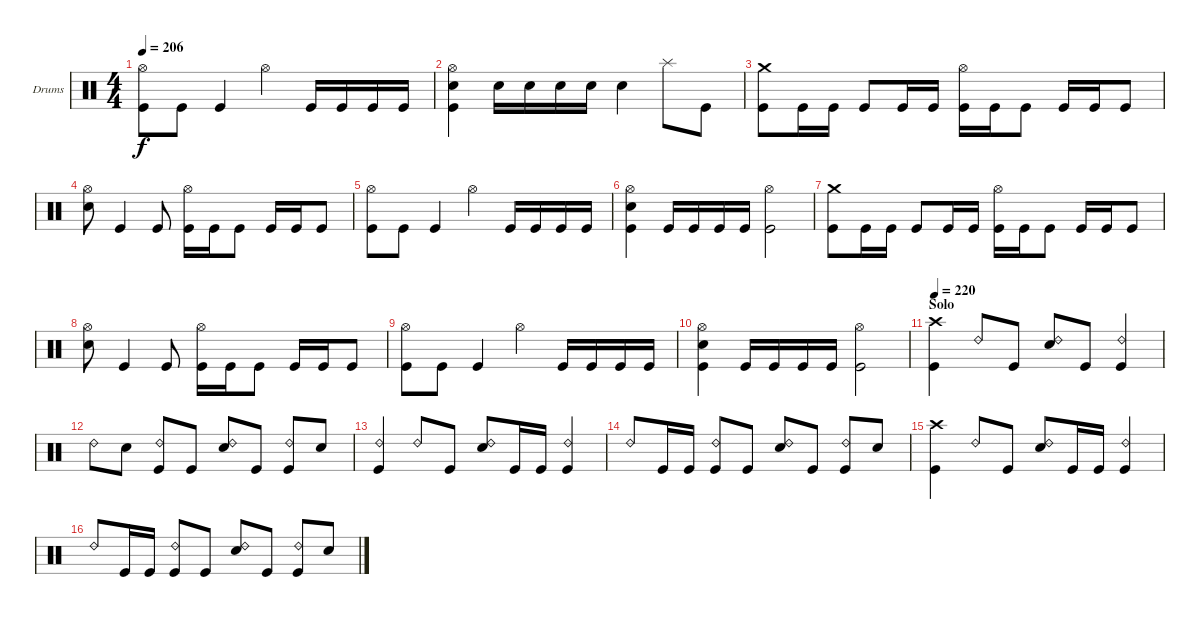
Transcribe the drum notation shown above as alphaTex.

\bracketExtendMode groupsimilarinstruments
\firstSystemTrackNameOrientation horizontal
\otherSystemsTrackNameOrientation horizontal
\track ("Drumkit" "Drums") {instrument percussion}
\staff {score}
\articulation defaults
\ts (4 4)
\tempo 206
\clef neutral
\scale
0.5
\ks c
("Hi-Hat (open)" "Kick (hit)").8{dy f} "Kick (hit)".8 "Kick (hit)".4 "Hi-Hat (open)".4 "Kick (hit)".16 "Kick (hit)".16 "Kick (hit)".16 "Kick (hit)".16 |
\scale
0.5 ("Hi-Hat (open)" "Snare (hit) 2" "Kick (hit)").4 "Snare (hit) 2".16 "Snare (hit) 2".16 "Snare (hit) 2".16 "Snare (hit) 2".16 "Snare (hit) 2".4 "Splash (hit)".8 "Kick (hit)".8 |
\scale
0.535354 ("Kick (hit)" "Crash medium (hit)").8 "Kick (hit)".16 "Kick (hit)".16 "Kick (hit)".8 "Kick (hit)".16 "Kick (hit)".16 ("Kick (hit)" "Hi-Hat (open)").16 "Kick (hit)".16 "Kick (hit)".8 "Kick (hit)".16 "Kick (hit)".16 "Kick (hit)".8 |
\scale
0.464646 ("Hi-Hat (open)" "Snare (hit) 2").8 "Kick (hit)".4 "Kick (hit)".8 ("Hi-Hat (open)" "Kick (hit)").16 "Kick (hit)".16 "Kick (hit)".8 "Kick (hit)".16 "Kick (hit)".16 "Kick (hit)".8 |
\scale
0.542056 ("Hi-Hat (open)" "Kick (hit)").8 "Kick (hit)".8 "Kick (hit)".4 "Hi-Hat (open)".4 "Kick (hit)".16 "Kick (hit)".16 "Kick (hit)".16 "Kick (hit)".16 |
\scale
0.457944 ("Hi-Hat (open)" "Snare (hit) 2" "Kick (hit)").4 "Kick (hit)".16 "Kick (hit)".16 "Kick (hit)".16 "Kick (hit)".16 ("Hi-Hat (open)" "Kick (hit)").2 |
\scale
0.535354 ("Kick (hit)" "Crash medium (hit)").8 "Kick (hit)".16 "Kick (hit)".16 "Kick (hit)".8 "Kick (hit)".16 "Kick (hit)".16 ("Kick (hit)" "Hi-Hat (open)").16 "Kick (hit)".16 "Kick (hit)".8 "Kick (hit)".16 "Kick (hit)".16 "Kick (hit)".8 |
\scale
0.464646 ("Hi-Hat (open)" "Snare (hit) 2").8 "Kick (hit)".4 "Kick (hit)".8 ("Hi-Hat (open)" "Kick (hit)").16 "Kick (hit)".16 "Kick (hit)".8 "Kick (hit)".16 "Kick (hit)".16 "Kick (hit)".8 |
\scale
0.542056 ("Hi-Hat (open)" "Kick (hit)").8 "Kick (hit)".8 "Kick (hit)".4 "Hi-Hat (open)".4 "Kick (hit)".16 "Kick (hit)".16 "Kick (hit)".16 "Kick (hit)".16 |
\scale
0.457944 ("Hi-Hat (open)" "Snare (hit) 2" "Kick (hit)").4 "Kick (hit)".16 "Kick (hit)".16 "Kick (hit)".16 "Kick (hit)".16 ("Hi-Hat (open)" "Kick (hit)").2 |
\section ("" "Solo")
\tempo 220
\scale
0.466667 ("Crash high (hit)" "Kick (hit)").4 "Ride (bell) 2".8 "Kick (hit)".8 ("Ride (bell) 2" "Snare (hit) 2").8 "Kick (hit)".8 ("Ride (bell) 2" "Kick (hit)").4 |
\scale
0.533333 "Ride (bell) 2".8 "Snare (hit) 2".8 ("Ride (bell) 2" "Kick (hit)").8 "Kick (hit)".8 ("Ride (bell) 2" "Snare (hit) 2").8 "Kick (hit)".8 ("Ride (bell) 2" "Kick (hit)").8 "Snare (hit) 2".8 |
\scale
0.471429 ("Ride (bell) 2" "Kick (hit)").4 "Ride (bell) 2".8 "Kick (hit)".8 ("Ride (bell) 2" "Snare (hit) 2").8 "Kick (hit)".16 "Kick (hit)".16 ("Ride (bell) 2" "Kick (hit)").4 |
\scale
0.528571 "Ride (bell) 2".8 "Kick (hit)".16 "Kick (hit)".16 ("Ride (bell) 2" "Kick (hit)").8 "Kick (hit)".8 ("Ride (bell) 2" "Snare (hit) 2").8 "Kick (hit)".8 ("Ride (bell) 2" "Kick (hit)").8 "Snare (hit) 2".8 |
\scale
0.471429 ("Crash high (hit)" "Kick (hit)").4 "Ride (bell) 2".8 "Kick (hit)".8 ("Ride (bell) 2" "Snare (hit) 2").8 "Kick (hit)".16 "Kick (hit)".16 ("Ride (bell) 2" "Kick (hit)").4 |
\scale
0.528571 "Ride (bell) 2".8 "Kick (hit)".16 "Kick (hit)".16 ("Ride (bell) 2" "Kick (hit)").8 "Kick (hit)".8 ("Ride (bell) 2" "Snare (hit) 2").8 "Kick (hit)".8 ("Ride (bell) 2" "Kick (hit)").8 "Snare (hit) 2".8
